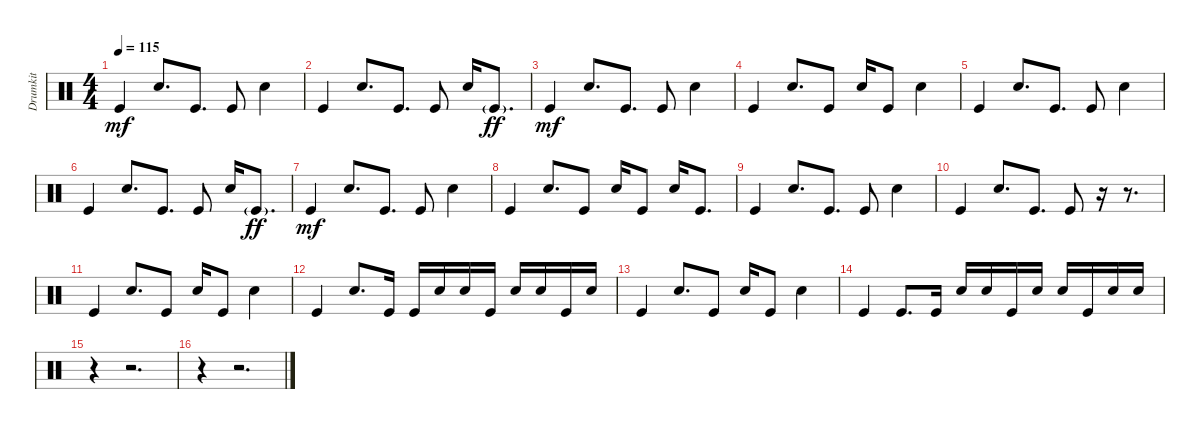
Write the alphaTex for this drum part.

\track ("Drumkit" "Drumkit") {instrument percussion}
\staff {score}
\articulation defaults
\ts (4 4)
\tempo 115
\clef neutral
\ks c "Kick (hit)".4{dy mf} "Snare (hit) 2".8{d} "Kick (hit)".8{d} "Kick (hit)".8 "Snare (hit) 2".4
|
"Kick (hit)".4 "Snare (hit) 2".8{d} "Kick (hit)".8{d} "Kick (hit)".8 "Snare (hit) 2".16 "Kick (hit)"{g}.8{d dy ff} |
"Kick (hit)".4{dy mf} "Snare (hit) 2".8{d} "Kick (hit)".8{d} "Kick (hit)".8 "Snare (hit) 2".4 |
"Kick (hit)".4 "Snare (hit) 2".8{d} "Kick (hit)".8 "Snare (hit) 2".16 "Kick (hit)".8 "Snare (hit) 2".4 |
"Kick (hit)".4 "Snare (hit) 2".8{d} "Kick (hit)".8{d} "Kick (hit)".8 "Snare (hit) 2".4 |
"Kick (hit)".4 "Snare (hit) 2".8{d} "Kick (hit)".8{d} "Kick (hit)".8 "Snare (hit) 2".16 "Kick (hit)"{g}.8{d dy ff} |
"Kick (hit)".4{dy mf} "Snare (hit) 2".8{d} "Kick (hit)".8{d} "Kick (hit)".8 "Snare (hit) 2".4 |
"Kick (hit)".4 "Snare (hit) 2".8{d} "Kick (hit)".8 "Snare (hit) 2".16 "Kick (hit)".8 "Snare (hit) 2".16 "Kick (hit)".8{d} |
"Kick (hit)".4 "Snare (hit) 2".8{d} "Kick (hit)".8{d} "Kick (hit)".8 "Snare (hit) 2".4 |
"Kick (hit)".4 "Snare (hit) 2".8{d} "Kick (hit)".8{d} "Kick (hit)".8 r.16 r.8{d} |
"Kick (hit)".4 "Snare (hit) 2".8{d} "Kick (hit)".8 "Snare (hit) 2".16 "Kick (hit)".8 "Snare (hit) 2".4 |
"Kick (hit)".4 "Snare (hit) 2".8{d} "Kick (hit)".16 "Kick (hit)".16 "Snare (hit) 2".16 "Snare (hit) 2".16 "Kick (hit)".16 "Snare (hit) 2".16 "Snare (hit) 2".16 "Kick (hit)".16 "Snare (hit) 2".16 |
"Kick (hit)".4 "Snare (hit) 2".8{d} "Kick (hit)".8 "Snare (hit) 2".16 "Kick (hit)".8 "Snare (hit) 2".4 |
"Kick (hit)".4 "Kick (hit)".8{d} "Kick (hit)".16 "Snare (hit) 2".16 "Snare (hit) 2".16 "Kick (hit)".16 "Snare (hit) 2".16 "Snare (hit) 2".16 "Kick (hit)".16 "Snare (hit) 2".16 "Snare (hit) 2".16 |
r.4 r.2{d} |
r.4 r.2{d}
